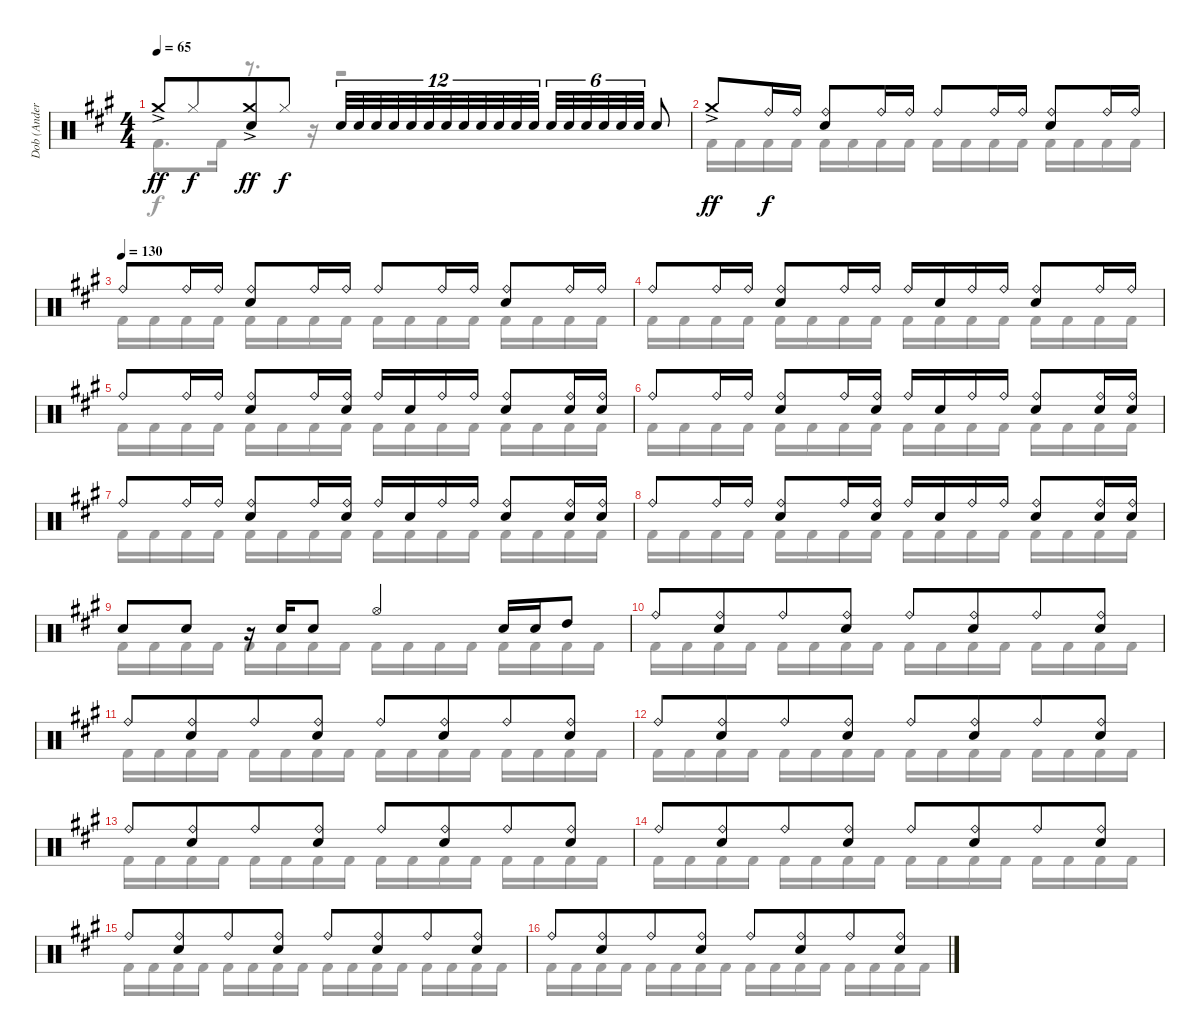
\track ("Dob (Anders Johansson)" "Dob (Ander") {instrument percussion}
\staff {score}
\articulation defaults
\voice
\ts (4 4)
\tempo 65
\clef neutral
\ks a "Crash medium (hit)"{ac}.8{dy ff} "Hi-Hat (closed)".8{dy f beam merge}
("Crash medium (hit)"{ac} "Electric Snare (hit)").8{dy ff} "Hi-Hat (closed)".8{dy f} "Electric Snare (hit)".32{tu (12 8)} "Electric Snare (hit)".32{tu (12 8)} "Electric Snare (hit)".32{tu (12 8)} "Electric Snare (hit)".32{tu (12 8)} "Electric Snare (hit)".32{tu (12 8)} "Electric Snare (hit)".32{tu (12 8)} "Electric Snare (hit)".32{tu (12 8)} "Electric Snare (hit)".32{tu (12 8)} "Electric Snare (hit)".32{tu (12 8)} "Electric Snare (hit)".32{tu (12 8)} "Electric Snare (hit)".32{tu (12 8)} "Electric Snare (hit)".32{tu (12 8)} "Electric Snare (hit)".32{tu (6 4)} "Electric Snare (hit)".32{tu (6 4)} "Electric Snare (hit)".32{tu (6 4)} "Electric Snare (hit)".32{tu (6 4)} "Electric Snare (hit)".32{tu (6 4)} "Electric Snare (hit)".32{tu (6 4)} "Electric Snare (hit)".8 |
"Crash medium (hit)"{ac}.8{dy ff} "Ride (bell)".16{dy f} "Ride (bell)".16 ("Ride (bell)" "Electric Snare (hit)").8 "Ride (bell)".16 "Ride (bell)".16 "Ride (bell)".8 "Ride (bell)".16 "Ride (bell)".16 ("Ride (bell)" "Electric Snare (hit)").8 "Ride (bell)".16 "Ride (bell)".16 |
\tempo (130)
"Ride (bell)".8 "Ride (bell)".16 "Ride (bell)".16 ("Ride (bell)" "Electric Snare (hit)").8 "Ride (bell)".16 "Ride (bell)".16 "Ride (bell)".8 "Ride (bell)".16 "Ride (bell)".16 ("Ride (bell)" "Electric Snare (hit)").8 "Ride (bell)".16 "Ride (bell)".16 |
"Ride (bell)".8 "Ride (bell)".16 "Ride (bell)".16 ("Ride (bell)" "Electric Snare (hit)").8 "Ride (bell)".16 "Ride (bell)".16 "Ride (bell)".16 "Electric Snare (hit)".16 "Ride (bell)".16 "Ride (bell)".16 ("Ride (bell)" "Electric Snare (hit)").8 "Ride (bell)".16 "Ride (bell)".16 |
"Ride (bell)".8 "Ride (bell)".16 "Ride (bell)".16 ("Ride (bell)" "Electric Snare (hit)").8 "Ride (bell)".16 ("Ride (bell)" "Electric Snare (hit)").16 "Ride (bell)".16 "Electric Snare (hit)".16 "Ride (bell)".16 "Ride (bell)".16 ("Ride (bell)" "Electric Snare (hit)").8 ("Ride (bell)" "Electric Snare (hit)").16 ("Ride (bell)" "Electric Snare (hit)").16 |
"Ride (bell)".8 "Ride (bell)".16 "Ride (bell)".16 ("Ride (bell)" "Electric Snare (hit)").8 "Ride (bell)".16 ("Ride (bell)" "Electric Snare (hit)").16 "Ride (bell)".16 "Electric Snare (hit)".16 "Ride (bell)".16 "Ride (bell)".16 ("Ride (bell)" "Electric Snare (hit)").8 ("Ride (bell)" "Electric Snare (hit)").16 ("Ride (bell)" "Electric Snare (hit)").16 |
"Ride (bell)".8 "Ride (bell)".16 "Ride (bell)".16 ("Ride (bell)" "Electric Snare (hit)").8 "Ride (bell)".16 ("Ride (bell)" "Electric Snare (hit)").16 "Ride (bell)".16 "Electric Snare (hit)".16 "Ride (bell)".16 "Ride (bell)".16 ("Ride (bell)" "Electric Snare (hit)").8 ("Ride (bell)" "Electric Snare (hit)").16 ("Ride (bell)" "Electric Snare (hit)").16 |
"Ride (bell)".8 "Ride (bell)".16 "Ride (bell)".16 ("Ride (bell)" "Electric Snare (hit)").8 "Ride (bell)".16 ("Ride (bell)" "Electric Snare (hit)").16 "Ride (bell)".16 "Electric Snare (hit)".16 "Ride (bell)".16 "Ride (bell)".16 ("Ride (bell)" "Electric Snare (hit)").8 ("Ride (bell)" "Electric Snare (hit)").16 ("Ride (bell)" "Electric Snare (hit)").16 |
"Electric Snare (hit)".8 "Electric Snare (hit)".8 r.16 "Electric Snare (hit)".16 "Electric Snare (hit)".8 "Hi-Hat (open)".4 "Electric Snare (hit)".16 "Electric Snare (hit)".16 "High Tom (hit)".8 |
"Ride (bell)".8 ("Ride (bell)" "Electric Snare (hit)").8{beam merge} "Ride (bell)".8 ("Ride (bell)" "Electric Snare (hit)").8 "Ride (bell)".8 ("Ride (bell)" "Electric Snare (hit)").8{beam merge} "Ride (bell)".8 ("Ride (bell)" "Electric Snare (hit)").8 |
"Ride (bell)".8 ("Ride (bell)" "Electric Snare (hit)").8{beam merge} "Ride (bell)".8 ("Ride (bell)" "Electric Snare (hit)").8 "Ride (bell)".8 ("Ride (bell)" "Electric Snare (hit)").8{beam merge} "Ride (bell)".8 ("Ride (bell)" "Electric Snare (hit)").8 |
"Ride (bell)".8 ("Ride (bell)" "Electric Snare (hit)").8{beam merge} "Ride (bell)".8 ("Ride (bell)" "Electric Snare (hit)").8 "Ride (bell)".8 ("Ride (bell)" "Electric Snare (hit)").8{beam merge} "Ride (bell)".8 ("Ride (bell)" "Electric Snare (hit)").8 |
"Ride (bell)".8 ("Ride (bell)" "Electric Snare (hit)").8{beam merge} "Ride (bell)".8 ("Ride (bell)" "Electric Snare (hit)").8 "Ride (bell)".8 ("Ride (bell)" "Electric Snare (hit)").8{beam merge} "Ride (bell)".8 ("Ride (bell)" "Electric Snare (hit)").8 |
"Ride (bell)".8 ("Ride (bell)" "Electric Snare (hit)").8{beam merge} "Ride (bell)".8 ("Ride (bell)" "Electric Snare (hit)").8 "Ride (bell)".8 ("Ride (bell)" "Electric Snare (hit)").8{beam merge} "Ride (bell)".8 ("Ride (bell)" "Electric Snare (hit)").8 |
"Ride (bell)".8 ("Ride (bell)" "Electric Snare (hit)").8{beam merge} "Ride (bell)".8 ("Ride (bell)" "Electric Snare (hit)").8 "Ride (bell)".8 ("Ride (bell)" "Electric Snare (hit)").8{beam merge} "Ride (bell)".8 ("Ride (bell)" "Electric Snare (hit)").8 |
"Ride (bell)".8 ("Ride (bell)" "Electric Snare (hit)").8{beam merge} "Ride (bell)".8 ("Ride (bell)" "Electric Snare (hit)").8 "Ride (bell)".8 ("Ride (bell)" "Electric Snare (hit)").8{beam merge} "Ride (bell)".8 ("Ride (bell)" "Electric Snare (hit)").8
\voice
\clef neutral
\ottava regular
\simile none
\ks a "Kick (hit) 2".8{d dy f} "Kick (hit) 2".16
r.8{d} r.16 r.2 |
"Kick (hit) 2".16 "Kick (hit) 2".16 "Kick (hit) 2".16 "Kick (hit) 2".16 "Kick (hit) 2".16 "Kick (hit) 2".16 "Kick (hit) 2".16 "Kick (hit) 2".16 "Kick (hit) 2".16 "Kick (hit) 2".16 "Kick (hit) 2".16 "Kick (hit) 2".16 "Kick (hit) 2".16 "Kick (hit) 2".16 "Kick (hit) 2".16 "Kick (hit) 2".16 |
"Kick (hit) 2".16 "Kick (hit) 2".16 "Kick (hit) 2".16 "Kick (hit) 2".16 "Kick (hit) 2".16 "Kick (hit) 2".16 "Kick (hit) 2".16 "Kick (hit) 2".16 "Kick (hit) 2".16 "Kick (hit) 2".16 "Kick (hit) 2".16 "Kick (hit) 2".16 "Kick (hit) 2".16 "Kick (hit) 2".16 "Kick (hit) 2".16 "Kick (hit) 2".16 |
"Kick (hit) 2".16 "Kick (hit) 2".16 "Kick (hit) 2".16 "Kick (hit) 2".16 "Kick (hit) 2".16 "Kick (hit) 2".16 "Kick (hit) 2".16 "Kick (hit) 2".16 "Kick (hit) 2".16 "Kick (hit) 2".16 "Kick (hit) 2".16 "Kick (hit) 2".16 "Kick (hit) 2".16 "Kick (hit) 2".16 "Kick (hit) 2".16 "Kick (hit) 2".16 |
"Kick (hit) 2".16 "Kick (hit) 2".16 "Kick (hit) 2".16 "Kick (hit) 2".16 "Kick (hit) 2".16 "Kick (hit) 2".16 "Kick (hit) 2".16 "Kick (hit) 2".16 "Kick (hit) 2".16 "Kick (hit) 2".16 "Kick (hit) 2".16 "Kick (hit) 2".16 "Kick (hit) 2".16 "Kick (hit) 2".16 "Kick (hit) 2".16 "Kick (hit) 2".16 |
"Kick (hit) 2".16 "Kick (hit) 2".16 "Kick (hit) 2".16 "Kick (hit) 2".16 "Kick (hit) 2".16 "Kick (hit) 2".16 "Kick (hit) 2".16 "Kick (hit) 2".16 "Kick (hit) 2".16 "Kick (hit) 2".16 "Kick (hit) 2".16 "Kick (hit) 2".16 "Kick (hit) 2".16 "Kick (hit) 2".16 "Kick (hit) 2".16 "Kick (hit) 2".16 |
"Kick (hit) 2".16 "Kick (hit) 2".16 "Kick (hit) 2".16 "Kick (hit) 2".16 "Kick (hit) 2".16 "Kick (hit) 2".16 "Kick (hit) 2".16 "Kick (hit) 2".16 "Kick (hit) 2".16 "Kick (hit) 2".16 "Kick (hit) 2".16 "Kick (hit) 2".16 "Kick (hit) 2".16 "Kick (hit) 2".16 "Kick (hit) 2".16 "Kick (hit) 2".16 |
"Kick (hit) 2".16 "Kick (hit) 2".16 "Kick (hit) 2".16 "Kick (hit) 2".16 "Kick (hit) 2".16 "Kick (hit) 2".16 "Kick (hit) 2".16 "Kick (hit) 2".16 "Kick (hit) 2".16 "Kick (hit) 2".16 "Kick (hit) 2".16 "Kick (hit) 2".16 "Kick (hit) 2".16 "Kick (hit) 2".16 "Kick (hit) 2".16 "Kick (hit) 2".16 |
"Kick (hit) 2".16 "Kick (hit) 2".16 "Kick (hit) 2".16 "Kick (hit) 2".16 "Kick (hit) 2".16 "Kick (hit) 2".16 "Kick (hit) 2".16 "Kick (hit) 2".16 "Kick (hit) 2".16 "Kick (hit) 2".16 "Kick (hit) 2".16 "Kick (hit) 2".16 "Kick (hit) 2".16 "Kick (hit) 2".16 "Kick (hit) 2".16 "Kick (hit) 2".16 |
"Kick (hit) 2".16 "Kick (hit) 2".16 "Kick (hit) 2".16 "Kick (hit) 2".16 "Kick (hit) 2".16 "Kick (hit) 2".16 "Kick (hit) 2".16 "Kick (hit) 2".16 "Kick (hit) 2".16 "Kick (hit) 2".16 "Kick (hit) 2".16 "Kick (hit) 2".16 "Kick (hit) 2".16 "Kick (hit) 2".16 "Kick (hit) 2".16 "Kick (hit) 2".16 |
"Kick (hit) 2".16 "Kick (hit) 2".16 "Kick (hit) 2".16 "Kick (hit) 2".16 "Kick (hit) 2".16 "Kick (hit) 2".16 "Kick (hit) 2".16 "Kick (hit) 2".16 "Kick (hit) 2".16 "Kick (hit) 2".16 "Kick (hit) 2".16 "Kick (hit) 2".16 "Kick (hit) 2".16 "Kick (hit) 2".16 "Kick (hit) 2".16 "Kick (hit) 2".16 |
"Kick (hit) 2".16 "Kick (hit) 2".16 "Kick (hit) 2".16 "Kick (hit) 2".16 "Kick (hit) 2".16 "Kick (hit) 2".16 "Kick (hit) 2".16 "Kick (hit) 2".16 "Kick (hit) 2".16 "Kick (hit) 2".16 "Kick (hit) 2".16 "Kick (hit) 2".16 "Kick (hit) 2".16 "Kick (hit) 2".16 "Kick (hit) 2".16 "Kick (hit) 2".16 |
"Kick (hit) 2".16 "Kick (hit) 2".16 "Kick (hit) 2".16 "Kick (hit) 2".16 "Kick (hit) 2".16 "Kick (hit) 2".16 "Kick (hit) 2".16 "Kick (hit) 2".16 "Kick (hit) 2".16 "Kick (hit) 2".16 "Kick (hit) 2".16 "Kick (hit) 2".16 "Kick (hit) 2".16 "Kick (hit) 2".16 "Kick (hit) 2".16 "Kick (hit) 2".16 |
"Kick (hit) 2".16 "Kick (hit) 2".16 "Kick (hit) 2".16 "Kick (hit) 2".16 "Kick (hit) 2".16 "Kick (hit) 2".16 "Kick (hit) 2".16 "Kick (hit) 2".16 "Kick (hit) 2".16 "Kick (hit) 2".16 "Kick (hit) 2".16 "Kick (hit) 2".16 "Kick (hit) 2".16 "Kick (hit) 2".16 "Kick (hit) 2".16 "Kick (hit) 2".16 |
"Kick (hit) 2".16 "Kick (hit) 2".16 "Kick (hit) 2".16 "Kick (hit) 2".16 "Kick (hit) 2".16 "Kick (hit) 2".16 "Kick (hit) 2".16 "Kick (hit) 2".16 "Kick (hit) 2".16 "Kick (hit) 2".16 "Kick (hit) 2".16 "Kick (hit) 2".16 "Kick (hit) 2".16 "Kick (hit) 2".16 "Kick (hit) 2".16 "Kick (hit) 2".16 |
"Kick (hit) 2".16 "Kick (hit) 2".16 "Kick (hit) 2".16 "Kick (hit) 2".16 "Kick (hit) 2".16 "Kick (hit) 2".16 "Kick (hit) 2".16 "Kick (hit) 2".16 "Kick (hit) 2".16 "Kick (hit) 2".16 "Kick (hit) 2".16 "Kick (hit) 2".16 "Kick (hit) 2".16 "Kick (hit) 2".16 "Kick (hit) 2".16 "Kick (hit) 2".16
